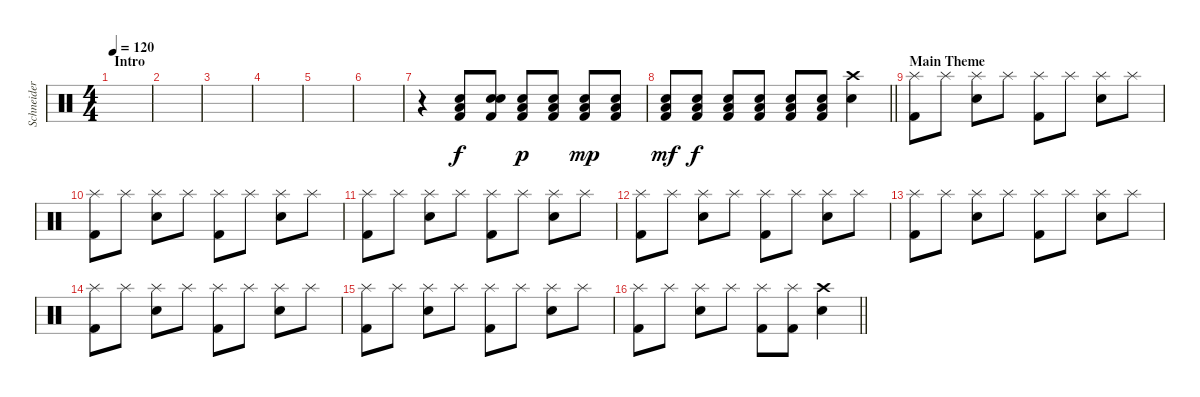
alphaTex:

\track ("Schneider" "Schneider") {instrument percussion}
\staff {score}
\articulation defaults
\ts (4 4)
\section ("" "Intro")
\tempo 120
\clef neutral
\ks c
|
|
|
|
|
|
r.4 ("Low Floor Tom (hit)" "Electric Snare (hit)" "Kick (hit) 2").8 ("Snare (hit)" "Electric Snare (hit)" "Kick (hit) 2").8 ("Low Floor Tom (hit)" "Electric Snare (hit)" "Kick (hit) 2").8{dy p} ("Low Floor Tom (hit)" "Electric Snare (hit)" "Kick (hit) 2").8 ("Low Floor Tom (hit)" "Electric Snare (hit)" "Kick (hit) 2").8{dy mp} ("Low Floor Tom (hit)" "Electric Snare (hit)" "Kick (hit) 2").8 |
\barLineRight lightlight
("Low Floor Tom (hit)" "Electric Snare (hit)" "Kick (hit) 2").8{dy mf} ("Low Floor Tom (hit)" "Electric Snare (hit)" "Kick (hit) 2").8{dy f} ("Low Floor Tom (hit)" "Electric Snare (hit)" "Kick (hit) 2").8 ("Low Floor Tom (hit)" "Electric Snare (hit)" "Kick (hit) 2").8 ("Low Floor Tom (hit)" "Electric Snare (hit)" "Kick (hit) 2").8 ("Low Floor Tom (hit)" "Electric Snare (hit)" "Kick (hit) 2").8 ("Crash high (hit)" "Electric Snare (hit)").4 |
\section ("" "Main Theme")
("Splash (hit)" "Kick (hit) 2").8 "Splash (hit)".8 ("Splash (hit)" "Electric Snare (hit)").8 "Splash (hit)".8 ("Splash (hit)" "Kick (hit) 2").8 "Splash (hit)".8 ("Splash (hit)" "Electric Snare (hit)").8 "Splash (hit)".8 |
("Splash (hit)" "Kick (hit) 2").8 "Splash (hit)".8 ("Splash (hit)" "Electric Snare (hit)").8 "Splash (hit)".8 ("Splash (hit)" "Kick (hit) 2").8 "Splash (hit)".8 ("Splash (hit)" "Electric Snare (hit)").8 "Splash (hit)".8 |
("Splash (hit)" "Kick (hit) 2").8 "Splash (hit)".8 ("Splash (hit)" "Electric Snare (hit)").8 "Splash (hit)".8 ("Splash (hit)" "Kick (hit) 2").8 "Splash (hit)".8 ("Splash (hit)" "Electric Snare (hit)").8 "Splash (hit)".8 |
("Splash (hit)" "Kick (hit) 2").8 "Splash (hit)".8 ("Splash (hit)" "Electric Snare (hit)").8 "Splash (hit)".8 ("Splash (hit)" "Kick (hit) 2").8 "Splash (hit)".8 ("Splash (hit)" "Electric Snare (hit)").8 "Splash (hit)".8 |
("Splash (hit)" "Kick (hit) 2").8 "Splash (hit)".8 ("Splash (hit)" "Electric Snare (hit)").8 "Splash (hit)".8 ("Splash (hit)" "Kick (hit) 2").8 "Splash (hit)".8 ("Splash (hit)" "Electric Snare (hit)").8 "Splash (hit)".8 |
("Splash (hit)" "Kick (hit) 2").8 "Splash (hit)".8 ("Splash (hit)" "Electric Snare (hit)").8 "Splash (hit)".8 ("Splash (hit)" "Kick (hit) 2").8 "Splash (hit)".8 ("Splash (hit)" "Electric Snare (hit)").8 "Splash (hit)".8 |
("Splash (hit)" "Kick (hit) 2").8 "Splash (hit)".8 ("Splash (hit)" "Electric Snare (hit)").8 "Splash (hit)".8 ("Splash (hit)" "Kick (hit) 2").8 "Splash (hit)".8 ("Splash (hit)" "Electric Snare (hit)").8 "Splash (hit)".8 |
\barLineRight lightlight
("Splash (hit)" "Kick (hit) 2").8 "Splash (hit)".8 ("Splash (hit)" "Electric Snare (hit)").8 "Splash (hit)".8 ("Splash (hit)" "Kick (hit) 2").8 ("Splash (hit)" "Kick (hit) 2").8 ("Crash high (hit)" "Electric Snare (hit)").4
